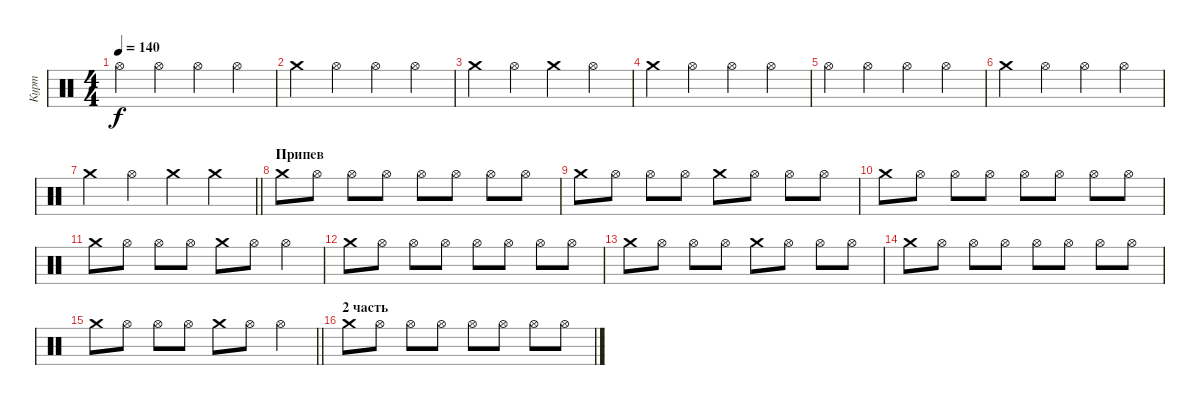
\track ("Курт" "Курт") {instrument percussion}
\staff {score}
\articulation defaults
\ts (4 4)
\tempo 140
\clef neutral
\ks c "Hi-Hat (open)".4{dy f} "Hi-Hat (open)".4 "Hi-Hat (open)".4 "Hi-Hat (open)".4
|
"Crash medium (hit)".4 "Hi-Hat (open)".4 "Hi-Hat (open)".4 "Hi-Hat (open)".4 |
"Crash medium (hit)".4 "Hi-Hat (open)".4 "Crash medium (hit)".4 "Hi-Hat (open)".4 |
"Crash medium (hit)".4 "Hi-Hat (open)".4 "Hi-Hat (open)".4 "Hi-Hat (open)".4 |
"Hi-Hat (open)".4 "Hi-Hat (open)".4 "Hi-Hat (open)".4 "Hi-Hat (open)".4 |
"Crash medium (hit)".4 "Hi-Hat (open)".4 "Hi-Hat (open)".4 "Hi-Hat (open)".4 |
\barLineRight lightlight "Crash medium (hit)".4 "Hi-Hat (open)".4 "Crash medium (hit)".4 "Crash medium (hit)".4
|
\section ("" "Припев")
"Crash medium (hit)".8 "Hi-Hat (open)".8 "Hi-Hat (open)".8 "Hi-Hat (open)".8 "Hi-Hat (open)".8 "Hi-Hat (open)".8 "Hi-Hat (open)".8 "Hi-Hat (open)".8 |
"Crash medium (hit)".8 "Hi-Hat (open)".8 "Hi-Hat (open)".8 "Hi-Hat (open)".8 "Crash medium (hit)".8 "Hi-Hat (open)".8 "Hi-Hat (open)".8 "Hi-Hat (open)".8 |
"Crash medium (hit)".8 "Hi-Hat (open)".8 "Hi-Hat (open)".8 "Hi-Hat (open)".8 "Hi-Hat (open)".8 "Hi-Hat (open)".8 "Hi-Hat (open)".8 "Hi-Hat (open)".8 |
"Crash medium (hit)".8 "Hi-Hat (open)".8 "Hi-Hat (open)".8 "Hi-Hat (open)".8 "Crash medium (hit)".8 "Hi-Hat (open)".8 "Hi-Hat (open)".4 |
"Crash medium (hit)".8 "Hi-Hat (open)".8 "Hi-Hat (open)".8 "Hi-Hat (open)".8 "Hi-Hat (open)".8 "Hi-Hat (open)".8 "Hi-Hat (open)".8 "Hi-Hat (open)".8 |
"Crash medium (hit)".8 "Hi-Hat (open)".8 "Hi-Hat (open)".8 "Hi-Hat (open)".8 "Crash medium (hit)".8 "Hi-Hat (open)".8 "Hi-Hat (open)".8 "Hi-Hat (open)".8 |
"Crash medium (hit)".8 "Hi-Hat (open)".8 "Hi-Hat (open)".8 "Hi-Hat (open)".8 "Hi-Hat (open)".8 "Hi-Hat (open)".8 "Hi-Hat (open)".8 "Hi-Hat (open)".8 |
\barLineRight lightlight "Crash medium (hit)".8 "Hi-Hat (open)".8 "Hi-Hat (open)".8 "Hi-Hat (open)".8 "Crash medium (hit)".8 "Hi-Hat (open)".8 "Hi-Hat (open)".4
|
\section ("" "2 часть")
"Crash medium (hit)".8 "Hi-Hat (open)".8 "Hi-Hat (open)".8 "Hi-Hat (open)".8 "Hi-Hat (open)".8 "Hi-Hat (open)".8 "Hi-Hat (open)".8 "Hi-Hat (open)".8
